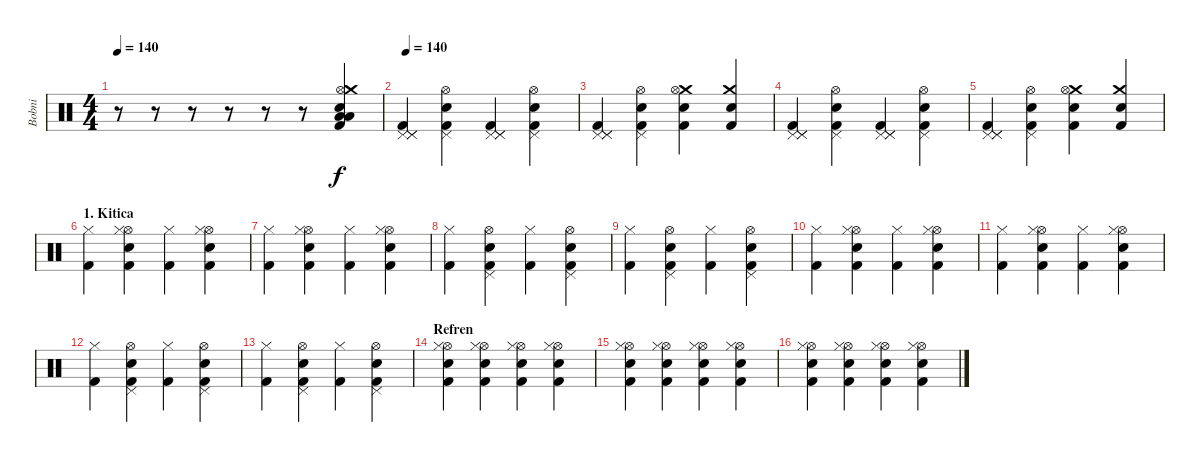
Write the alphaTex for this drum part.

\track ("Bobni" "Bobni") {instrument percussion}
\staff {score}
\articulation defaults
\ts (4 4)
\tempo 140
\tempo 150
\tempo 140
\clef neutral
\ks c
r.8{dy f} r.8 r.8 r.8 r.8 r.8 ("Low Tom (hit)" "Hi-Hat (open)" "Snare (hit) 2" "Low Tom (hit)" "Crash medium (hit)" "Kick (hit) 2").4 |
\tempo 140
("Pedal Hi-Hat (hit)" "Pedal Hi-Hat (hit)" "Pedal Hi-Hat (hit)" "Kick (hit) 2").4 ("Hi-Hat (open)" "Snare (hit) 2" "Pedal Hi-Hat (hit)" "Kick (hit) 2").4 ("Pedal Hi-Hat (hit)" "Pedal Hi-Hat (hit)" "Pedal Hi-Hat (hit)" "Kick (hit) 2").4 ("Hi-Hat (open)" "Snare (hit) 2" "Pedal Hi-Hat (hit)" "Kick (hit) 2").4 |
("Pedal Hi-Hat (hit)" "Pedal Hi-Hat (hit)" "Pedal Hi-Hat (hit)" "Kick (hit) 2").4 ("Hi-Hat (open)" "Snare (hit) 2" "Pedal Hi-Hat (hit)" "Kick (hit) 2").4 ("Electric Snare (hit)" "Crash medium (hit)" "Hi-Hat (open)" "Kick (hit) 2").4 ("Crash medium (hit)" "Snare (hit) 2" "Kick (hit) 2").4 |
("Pedal Hi-Hat (hit)" "Pedal Hi-Hat (hit)" "Pedal Hi-Hat (hit)" "Kick (hit) 2").4 ("Hi-Hat (open)" "Snare (hit) 2" "Pedal Hi-Hat (hit)" "Kick (hit) 2").4 ("Pedal Hi-Hat (hit)" "Pedal Hi-Hat (hit)" "Pedal Hi-Hat (hit)" "Kick (hit) 2").4 ("Hi-Hat (open)" "Snare (hit) 2" "Pedal Hi-Hat (hit)" "Kick (hit) 2").4 |
("Pedal Hi-Hat (hit)" "Pedal Hi-Hat (hit)" "Pedal Hi-Hat (hit)" "Kick (hit) 2").4 ("Hi-Hat (open)" "Snare (hit) 2" "Pedal Hi-Hat (hit)" "Kick (hit) 2").4 ("Electric Snare (hit)" "Crash medium (hit)" "Hi-Hat (open)" "Kick (hit) 2").4 ("Crash medium (hit)" "Snare (hit) 2" "Kick (hit) 2").4 |
\section ("" "1. Kitica")
("Hi-Hat (closed)" "Kick (hit) 2").4 ("Hi-Hat (open)" "Snare (hit) 2" "Hi-Hat (closed)" "Kick (hit) 2").4 ("Hi-Hat (closed)" "Kick (hit) 2").4 ("Hi-Hat (open)" "Snare (hit) 2" "Hi-Hat (closed)" "Kick (hit) 2").4 |
("Hi-Hat (closed)" "Kick (hit) 2").4 ("Hi-Hat (open)" "Snare (hit) 2" "Hi-Hat (closed)" "Kick (hit) 2").4 ("Hi-Hat (closed)" "Kick (hit) 2").4 ("Hi-Hat (open)" "Snare (hit) 2" "Hi-Hat (closed)" "Kick (hit) 2").4 |
("Hi-Hat (closed)" "Kick (hit) 2").4 ("Hi-Hat (open)" "Snare (hit) 2" "Pedal Hi-Hat (hit)" "Kick (hit) 2").4 ("Hi-Hat (closed)" "Kick (hit) 2").4 ("Hi-Hat (open)" "Snare (hit) 2" "Pedal Hi-Hat (hit)" "Kick (hit) 2").4 |
("Hi-Hat (closed)" "Kick (hit) 2").4 ("Hi-Hat (open)" "Snare (hit) 2" "Pedal Hi-Hat (hit)" "Kick (hit) 2").4 ("Hi-Hat (closed)" "Kick (hit) 2").4 ("Hi-Hat (open)" "Snare (hit) 2" "Pedal Hi-Hat (hit)" "Kick (hit) 2").4 |
("Hi-Hat (closed)" "Kick (hit) 2").4 ("Hi-Hat (open)" "Snare (hit) 2" "Hi-Hat (closed)" "Kick (hit) 2").4 ("Hi-Hat (closed)" "Kick (hit) 2").4 ("Hi-Hat (open)" "Snare (hit) 2" "Hi-Hat (closed)" "Kick (hit) 2").4 |
("Hi-Hat (closed)" "Kick (hit) 2").4 ("Hi-Hat (open)" "Snare (hit) 2" "Hi-Hat (closed)" "Kick (hit) 2").4 ("Hi-Hat (closed)" "Kick (hit) 2").4 ("Hi-Hat (open)" "Snare (hit) 2" "Hi-Hat (closed)" "Kick (hit) 2").4 |
("Hi-Hat (closed)" "Kick (hit) 2").4 ("Hi-Hat (open)" "Snare (hit) 2" "Pedal Hi-Hat (hit)" "Kick (hit) 2").4 ("Hi-Hat (closed)" "Kick (hit) 2").4 ("Hi-Hat (open)" "Snare (hit) 2" "Pedal Hi-Hat (hit)" "Kick (hit) 2").4 |
("Hi-Hat (closed)" "Kick (hit) 2").4 ("Hi-Hat (open)" "Snare (hit) 2" "Pedal Hi-Hat (hit)" "Kick (hit) 2").4 ("Hi-Hat (closed)" "Kick (hit) 2").4 ("Hi-Hat (open)" "Snare (hit) 2" "Pedal Hi-Hat (hit)" "Kick (hit) 2").4 |
\section ("" "Refren")
("Hi-Hat (open)" "Snare (hit) 2" "Hi-Hat (closed)" "Kick (hit) 2").4 ("Hi-Hat (open)" "Snare (hit) 2" "Hi-Hat (closed)" "Kick (hit) 2").4 ("Hi-Hat (open)" "Snare (hit) 2" "Hi-Hat (closed)" "Kick (hit) 2").4 ("Hi-Hat (open)" "Snare (hit) 2" "Hi-Hat (closed)" "Kick (hit) 2").4 |
("Hi-Hat (open)" "Snare (hit) 2" "Hi-Hat (closed)" "Kick (hit) 2").4 ("Hi-Hat (open)" "Snare (hit) 2" "Hi-Hat (closed)" "Kick (hit) 2").4 ("Hi-Hat (open)" "Snare (hit) 2" "Hi-Hat (closed)" "Kick (hit) 2").4 ("Hi-Hat (open)" "Snare (hit) 2" "Hi-Hat (closed)" "Kick (hit) 2").4 |
("Hi-Hat (open)" "Snare (hit) 2" "Hi-Hat (closed)" "Kick (hit) 2").4 ("Hi-Hat (open)" "Snare (hit) 2" "Hi-Hat (closed)" "Kick (hit) 2").4 ("Hi-Hat (open)" "Snare (hit) 2" "Hi-Hat (closed)" "Kick (hit) 2").4 ("Hi-Hat (open)" "Snare (hit) 2" "Hi-Hat (closed)" "Kick (hit) 2").4
